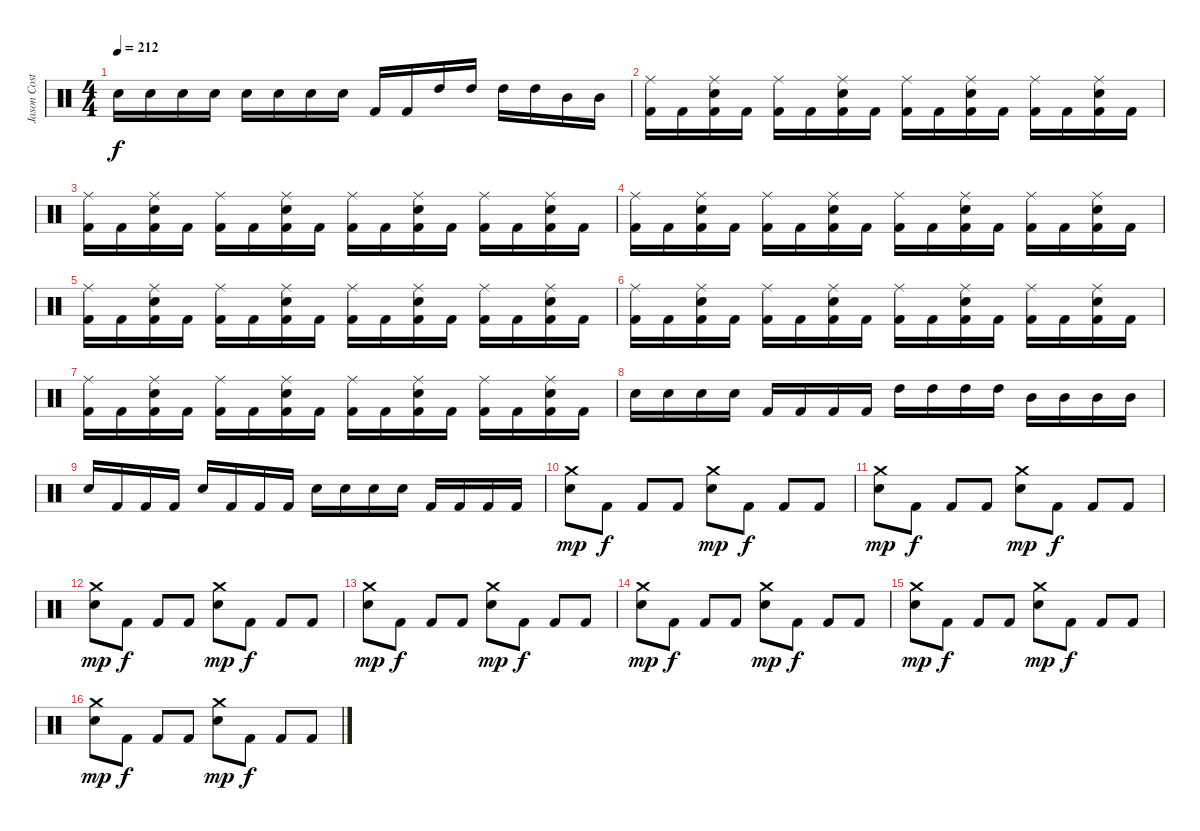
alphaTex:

\track ("Jason Costa" "Jason Cost") {instrument percussion}
\staff {score}
\articulation defaults
\ts (4 4)
\tempo 212
\clef neutral
\ks c "Electric Snare (hit)".16{dy f} "Electric Snare (hit)".16 "Electric Snare (hit)".16 "Electric Snare (hit)".16 "Electric Snare (hit)".16 "Electric Snare (hit)".16 "Electric Snare (hit)".16 "Electric Snare (hit)".16 "Kick (hit) 2".16 "Kick (hit) 2".16 "High Tom (hit)".16 "High Tom (hit)".16 "High Tom (hit)".16 "High Tom (hit)".16 "Mid Tom (hit)".16 "Mid Tom (hit)".16
|
("Ride (middle)" "Kick (hit) 2").16 "Kick (hit) 2".16 ("Ride (middle)" "Electric Snare (hit)" "Kick (hit) 2").16 "Kick (hit) 2".16 ("Ride (middle)" "Kick (hit) 2").16 "Kick (hit) 2".16 ("Ride (middle)" "Electric Snare (hit)" "Kick (hit) 2").16 "Kick (hit) 2".16 ("Ride (middle)" "Kick (hit) 2").16 "Kick (hit) 2".16 ("Ride (middle)" "Electric Snare (hit)" "Kick (hit) 2").16 "Kick (hit) 2".16 ("Ride (middle)" "Kick (hit) 2").16 "Kick (hit) 2".16 ("Ride (middle)" "Electric Snare (hit)" "Kick (hit) 2").16 "Kick (hit) 2".16 |
("Ride (middle)" "Kick (hit) 2").16 "Kick (hit) 2".16 ("Ride (middle)" "Electric Snare (hit)" "Kick (hit) 2").16 "Kick (hit) 2".16 ("Ride (middle)" "Kick (hit) 2").16 "Kick (hit) 2".16 ("Ride (middle)" "Electric Snare (hit)" "Kick (hit) 2").16 "Kick (hit) 2".16 ("Ride (middle)" "Kick (hit) 2").16 "Kick (hit) 2".16 ("Ride (middle)" "Electric Snare (hit)" "Kick (hit) 2").16 "Kick (hit) 2".16 ("Ride (middle)" "Kick (hit) 2").16 "Kick (hit) 2".16 ("Ride (middle)" "Electric Snare (hit)" "Kick (hit) 2").16 "Kick (hit) 2".16 |
("Ride (middle)" "Kick (hit) 2").16 "Kick (hit) 2".16 ("Ride (middle)" "Electric Snare (hit)" "Kick (hit) 2").16 "Kick (hit) 2".16 ("Ride (middle)" "Kick (hit) 2").16 "Kick (hit) 2".16 ("Ride (middle)" "Electric Snare (hit)" "Kick (hit) 2").16 "Kick (hit) 2".16 ("Ride (middle)" "Kick (hit) 2").16 "Kick (hit) 2".16 ("Ride (middle)" "Electric Snare (hit)" "Kick (hit) 2").16 "Kick (hit) 2".16 ("Ride (middle)" "Kick (hit) 2").16 "Kick (hit) 2".16 ("Ride (middle)" "Electric Snare (hit)" "Kick (hit) 2").16 "Kick (hit) 2".16 |
("Ride (middle)" "Kick (hit) 2").16 "Kick (hit) 2".16 ("Ride (middle)" "Electric Snare (hit)" "Kick (hit) 2").16 "Kick (hit) 2".16 ("Ride (middle)" "Kick (hit) 2").16 "Kick (hit) 2".16 ("Ride (middle)" "Electric Snare (hit)" "Kick (hit) 2").16 "Kick (hit) 2".16 ("Ride (middle)" "Kick (hit) 2").16 "Kick (hit) 2".16 ("Ride (middle)" "Electric Snare (hit)" "Kick (hit) 2").16 "Kick (hit) 2".16 ("Ride (middle)" "Kick (hit) 2").16 "Kick (hit) 2".16 ("Ride (middle)" "Electric Snare (hit)" "Kick (hit) 2").16 "Kick (hit) 2".16 |
("Ride (middle)" "Kick (hit) 2").16 "Kick (hit) 2".16 ("Ride (middle)" "Electric Snare (hit)" "Kick (hit) 2").16 "Kick (hit) 2".16 ("Ride (middle)" "Kick (hit) 2").16 "Kick (hit) 2".16 ("Ride (middle)" "Electric Snare (hit)" "Kick (hit) 2").16 "Kick (hit) 2".16 ("Ride (middle)" "Kick (hit) 2").16 "Kick (hit) 2".16 ("Ride (middle)" "Electric Snare (hit)" "Kick (hit) 2").16 "Kick (hit) 2".16 ("Ride (middle)" "Kick (hit) 2").16 "Kick (hit) 2".16 ("Ride (middle)" "Electric Snare (hit)" "Kick (hit) 2").16 "Kick (hit) 2".16 |
("Ride (middle)" "Kick (hit) 2").16 "Kick (hit) 2".16 ("Ride (middle)" "Electric Snare (hit)" "Kick (hit) 2").16 "Kick (hit) 2".16 ("Ride (middle)" "Kick (hit) 2").16 "Kick (hit) 2".16 ("Ride (middle)" "Electric Snare (hit)" "Kick (hit) 2").16 "Kick (hit) 2".16 ("Ride (middle)" "Kick (hit) 2").16 "Kick (hit) 2".16 ("Ride (middle)" "Electric Snare (hit)" "Kick (hit) 2").16 "Kick (hit) 2".16 ("Ride (middle)" "Kick (hit) 2").16 "Kick (hit) 2".16 ("Ride (middle)" "Electric Snare (hit)" "Kick (hit) 2").16 "Kick (hit) 2".16 |
"Electric Snare (hit)".16 "Electric Snare (hit)".16 "Electric Snare (hit)".16 "Electric Snare (hit)".16 "Kick (hit) 2".16 "Kick (hit) 2".16 "Kick (hit) 2".16 "Kick (hit) 2".16 "High Tom (hit)".16 "High Tom (hit)".16 "High Tom (hit)".16 "High Tom (hit)".16 "Mid Tom (hit)".16 "Mid Tom (hit)".16 "Mid Tom (hit)".16 "Mid Tom (hit)".16 |
"Electric Snare (hit)".16 "Kick (hit) 2".16 "Kick (hit) 2".16 "Kick (hit) 2".16 "Electric Snare (hit)".16 "Kick (hit) 2".16 "Kick (hit) 2".16 "Kick (hit) 2".16 "Electric Snare (hit)".16 "Electric Snare (hit)".16 "Electric Snare (hit)".16 "Electric Snare (hit)".16 "Kick (hit) 2".16 "Kick (hit) 2".16 "Kick (hit) 2".16 "Kick (hit) 2".16 |
("Crash medium (hit)" "Electric Snare (hit)").8{dy mp} "Kick (hit) 2".8{dy f} "Kick (hit) 2".8 "Kick (hit) 2".8 ("Crash medium (hit)" "Electric Snare (hit)").8{dy mp} "Kick (hit) 2".8{dy f} "Kick (hit) 2".8 "Kick (hit) 2".8 |
("Crash medium (hit)" "Electric Snare (hit)").8{dy mp} "Kick (hit) 2".8{dy f} "Kick (hit) 2".8 "Kick (hit) 2".8 ("Crash medium (hit)" "Electric Snare (hit)").8{dy mp} "Kick (hit) 2".8{dy f} "Kick (hit) 2".8 "Kick (hit) 2".8 |
("Crash medium (hit)" "Electric Snare (hit)").8{dy mp} "Kick (hit) 2".8{dy f} "Kick (hit) 2".8 "Kick (hit) 2".8 ("Crash medium (hit)" "Electric Snare (hit)").8{dy mp} "Kick (hit) 2".8{dy f} "Kick (hit) 2".8 "Kick (hit) 2".8 |
("Crash medium (hit)" "Electric Snare (hit)").8{dy mp} "Kick (hit) 2".8{dy f} "Kick (hit) 2".8 "Kick (hit) 2".8 ("Crash medium (hit)" "Electric Snare (hit)").8{dy mp} "Kick (hit) 2".8{dy f} "Kick (hit) 2".8 "Kick (hit) 2".8 |
("Crash medium (hit)" "Electric Snare (hit)").8{dy mp} "Kick (hit) 2".8{dy f} "Kick (hit) 2".8 "Kick (hit) 2".8 ("Crash medium (hit)" "Electric Snare (hit)").8{dy mp} "Kick (hit) 2".8{dy f} "Kick (hit) 2".8 "Kick (hit) 2".8 |
("Crash medium (hit)" "Electric Snare (hit)").8{dy mp} "Kick (hit) 2".8{dy f} "Kick (hit) 2".8 "Kick (hit) 2".8 ("Crash medium (hit)" "Electric Snare (hit)").8{dy mp} "Kick (hit) 2".8{dy f} "Kick (hit) 2".8 "Kick (hit) 2".8 |
("Crash medium (hit)" "Electric Snare (hit)").8{dy mp} "Kick (hit) 2".8{dy f} "Kick (hit) 2".8 "Kick (hit) 2".8 ("Crash medium (hit)" "Electric Snare (hit)").8{dy mp} "Kick (hit) 2".8{dy f} "Kick (hit) 2".8 "Kick (hit) 2".8
